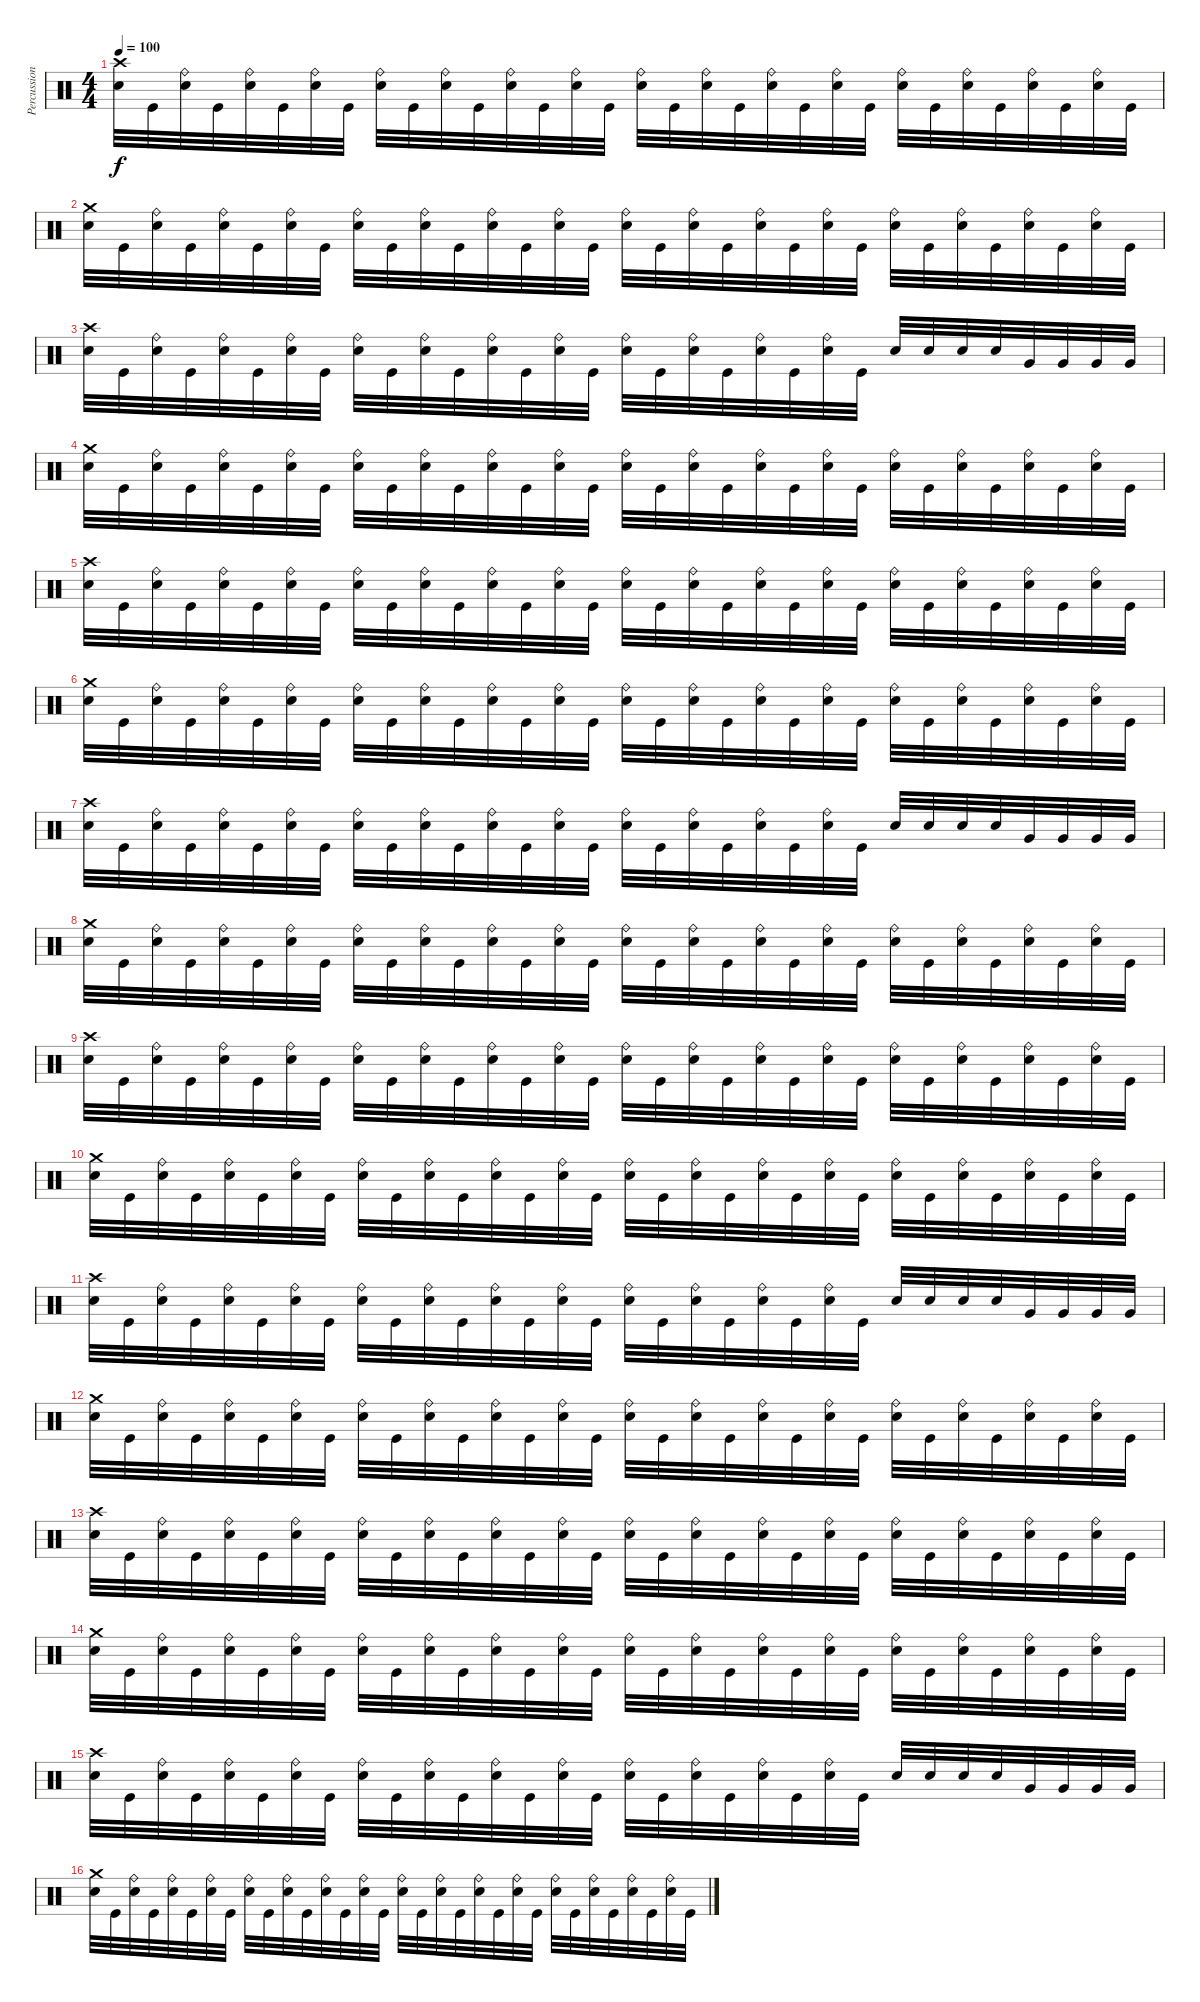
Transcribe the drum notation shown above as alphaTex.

\track ("Percussion" "Percussion") {instrument percussion}
\staff {score}
\articulation defaults
\ts (4 4)
\tempo 100
\clef neutral
\ks c
("Crash high (hit)" "Electric Snare (hit)").32{dy f} "Kick (hit)".32 ("Ride (bell)" "Electric Snare (hit)").32 "Kick (hit)".32 ("Ride (bell)" "Electric Snare (hit)").32 "Kick (hit)".32 ("Ride (bell)" "Electric Snare (hit)").32 "Kick (hit)".32 ("Ride (bell)" "Electric Snare (hit)").32 "Kick (hit)".32 ("Ride (bell)" "Electric Snare (hit)").32 "Kick (hit)".32 ("Ride (bell)" "Electric Snare (hit)").32 "Kick (hit)".32 ("Ride (bell)" "Electric Snare (hit)").32 "Kick (hit)".32 ("Ride (bell)" "Electric Snare (hit)").32 "Kick (hit)".32 ("Ride (bell)" "Electric Snare (hit)").32 "Kick (hit)".32 ("Ride (bell)" "Electric Snare (hit)").32 "Kick (hit)".32 ("Ride (bell)" "Electric Snare (hit)").32 "Kick (hit)".32 ("Ride (bell)" "Electric Snare (hit)").32 "Kick (hit)".32 ("Ride (bell)" "Electric Snare (hit)").32 "Kick (hit)".32 ("Ride (bell)" "Electric Snare (hit)").32 "Kick (hit)".32 ("Ride (bell)" "Electric Snare (hit)").32 "Kick (hit)".32 |
("Crash medium (hit)" "Electric Snare (hit)").32 "Kick (hit)".32 ("Ride (bell)" "Electric Snare (hit)").32 "Kick (hit)".32 ("Ride (bell)" "Electric Snare (hit)").32 "Kick (hit)".32 ("Ride (bell)" "Electric Snare (hit)").32 "Kick (hit)".32 ("Ride (bell)" "Electric Snare (hit)").32 "Kick (hit)".32 ("Ride (bell)" "Electric Snare (hit)").32 "Kick (hit)".32 ("Ride (bell)" "Electric Snare (hit)").32 "Kick (hit)".32 ("Ride (bell)" "Electric Snare (hit)").32 "Kick (hit)".32 ("Ride (bell)" "Electric Snare (hit)").32 "Kick (hit)".32 ("Ride (bell)" "Electric Snare (hit)").32 "Kick (hit)".32 ("Ride (bell)" "Electric Snare (hit)").32 "Kick (hit)".32 ("Ride (bell)" "Electric Snare (hit)").32 "Kick (hit)".32 ("Ride (bell)" "Electric Snare (hit)").32 "Kick (hit)".32 ("Ride (bell)" "Electric Snare (hit)").32 "Kick (hit)".32 ("Ride (bell)" "Electric Snare (hit)").32 "Kick (hit)".32 ("Ride (bell)" "Electric Snare (hit)").32 "Kick (hit)".32 |
("Crash high (hit)" "Electric Snare (hit)").32 "Kick (hit)".32 ("Ride (bell)" "Electric Snare (hit)").32 "Kick (hit)".32 ("Ride (bell)" "Electric Snare (hit)").32 "Kick (hit)".32 ("Ride (bell)" "Electric Snare (hit)").32 "Kick (hit)".32 ("Ride (bell)" "Electric Snare (hit)").32 "Kick (hit)".32 ("Ride (bell)" "Electric Snare (hit)").32 "Kick (hit)".32 ("Ride (bell)" "Electric Snare (hit)").32 "Kick (hit)".32 ("Ride (bell)" "Electric Snare (hit)").32 "Kick (hit)".32 ("Ride (bell)" "Electric Snare (hit)").32 "Kick (hit)".32 ("Ride (bell)" "Electric Snare (hit)").32 "Kick (hit)".32 ("Ride (bell)" "Electric Snare (hit)").32 "Kick (hit)".32 ("Ride (bell)" "Electric Snare (hit)").32 "Kick (hit)".32 "Electric Snare (hit)".32 "Electric Snare (hit)".32 "Electric Snare (hit)".32 "Electric Snare (hit)".32 "Very Low Tom (hit)".32 "Very Low Tom (hit)".32 "Very Low Tom (hit)".32 "Very Low Tom (hit)".32 |
("Crash medium (hit)" "Electric Snare (hit)").32 "Kick (hit)".32 ("Ride (bell)" "Electric Snare (hit)").32 "Kick (hit)".32 ("Ride (bell)" "Electric Snare (hit)").32 "Kick (hit)".32 ("Ride (bell)" "Electric Snare (hit)").32 "Kick (hit)".32 ("Ride (bell)" "Electric Snare (hit)").32 "Kick (hit)".32 ("Ride (bell)" "Electric Snare (hit)").32 "Kick (hit)".32 ("Ride (bell)" "Electric Snare (hit)").32 "Kick (hit)".32 ("Ride (bell)" "Electric Snare (hit)").32 "Kick (hit)".32 ("Ride (bell)" "Electric Snare (hit)").32 "Kick (hit)".32 ("Ride (bell)" "Electric Snare (hit)").32 "Kick (hit)".32 ("Ride (bell)" "Electric Snare (hit)").32 "Kick (hit)".32 ("Ride (bell)" "Electric Snare (hit)").32 "Kick (hit)".32 ("Ride (bell)" "Electric Snare (hit)").32 "Kick (hit)".32 ("Ride (bell)" "Electric Snare (hit)").32 "Kick (hit)".32 ("Ride (bell)" "Electric Snare (hit)").32 "Kick (hit)".32 ("Ride (bell)" "Electric Snare (hit)").32 "Kick (hit)".32 |
("Crash high (hit)" "Electric Snare (hit)").32 "Kick (hit)".32 ("Ride (bell)" "Electric Snare (hit)").32 "Kick (hit)".32 ("Ride (bell)" "Electric Snare (hit)").32 "Kick (hit)".32 ("Ride (bell)" "Electric Snare (hit)").32 "Kick (hit)".32 ("Ride (bell)" "Electric Snare (hit)").32 "Kick (hit)".32 ("Ride (bell)" "Electric Snare (hit)").32 "Kick (hit)".32 ("Ride (bell)" "Electric Snare (hit)").32 "Kick (hit)".32 ("Ride (bell)" "Electric Snare (hit)").32 "Kick (hit)".32 ("Ride (bell)" "Electric Snare (hit)").32 "Kick (hit)".32 ("Ride (bell)" "Electric Snare (hit)").32 "Kick (hit)".32 ("Ride (bell)" "Electric Snare (hit)").32 "Kick (hit)".32 ("Ride (bell)" "Electric Snare (hit)").32 "Kick (hit)".32 ("Ride (bell)" "Electric Snare (hit)").32 "Kick (hit)".32 ("Ride (bell)" "Electric Snare (hit)").32 "Kick (hit)".32 ("Ride (bell)" "Electric Snare (hit)").32 "Kick (hit)".32 ("Ride (bell)" "Electric Snare (hit)").32 "Kick (hit)".32 |
("Crash medium (hit)" "Electric Snare (hit)").32 "Kick (hit)".32 ("Ride (bell)" "Electric Snare (hit)").32 "Kick (hit)".32 ("Ride (bell)" "Electric Snare (hit)").32 "Kick (hit)".32 ("Ride (bell)" "Electric Snare (hit)").32 "Kick (hit)".32 ("Ride (bell)" "Electric Snare (hit)").32 "Kick (hit)".32 ("Ride (bell)" "Electric Snare (hit)").32 "Kick (hit)".32 ("Ride (bell)" "Electric Snare (hit)").32 "Kick (hit)".32 ("Ride (bell)" "Electric Snare (hit)").32 "Kick (hit)".32 ("Ride (bell)" "Electric Snare (hit)").32 "Kick (hit)".32 ("Ride (bell)" "Electric Snare (hit)").32 "Kick (hit)".32 ("Ride (bell)" "Electric Snare (hit)").32 "Kick (hit)".32 ("Ride (bell)" "Electric Snare (hit)").32 "Kick (hit)".32 ("Ride (bell)" "Electric Snare (hit)").32 "Kick (hit)".32 ("Ride (bell)" "Electric Snare (hit)").32 "Kick (hit)".32 ("Ride (bell)" "Electric Snare (hit)").32 "Kick (hit)".32 ("Ride (bell)" "Electric Snare (hit)").32 "Kick (hit)".32 |
("Crash high (hit)" "Electric Snare (hit)").32 "Kick (hit)".32 ("Ride (bell)" "Electric Snare (hit)").32 "Kick (hit)".32 ("Ride (bell)" "Electric Snare (hit)").32 "Kick (hit)".32 ("Ride (bell)" "Electric Snare (hit)").32 "Kick (hit)".32 ("Ride (bell)" "Electric Snare (hit)").32 "Kick (hit)".32 ("Ride (bell)" "Electric Snare (hit)").32 "Kick (hit)".32 ("Ride (bell)" "Electric Snare (hit)").32 "Kick (hit)".32 ("Ride (bell)" "Electric Snare (hit)").32 "Kick (hit)".32 ("Ride (bell)" "Electric Snare (hit)").32 "Kick (hit)".32 ("Ride (bell)" "Electric Snare (hit)").32 "Kick (hit)".32 ("Ride (bell)" "Electric Snare (hit)").32 "Kick (hit)".32 ("Ride (bell)" "Electric Snare (hit)").32 "Kick (hit)".32 "Electric Snare (hit)".32 "Electric Snare (hit)".32 "Electric Snare (hit)".32 "Electric Snare (hit)".32 "Very Low Tom (hit)".32 "Very Low Tom (hit)".32 "Very Low Tom (hit)".32 "Very Low Tom (hit)".32 |
("Crash medium (hit)" "Electric Snare (hit)").32 "Kick (hit)".32 ("Ride (bell)" "Electric Snare (hit)").32 "Kick (hit)".32 ("Ride (bell)" "Electric Snare (hit)").32 "Kick (hit)".32 ("Ride (bell)" "Electric Snare (hit)").32 "Kick (hit)".32 ("Ride (bell)" "Electric Snare (hit)").32 "Kick (hit)".32 ("Ride (bell)" "Electric Snare (hit)").32 "Kick (hit)".32 ("Ride (bell)" "Electric Snare (hit)").32 "Kick (hit)".32 ("Ride (bell)" "Electric Snare (hit)").32 "Kick (hit)".32 ("Ride (bell)" "Electric Snare (hit)").32 "Kick (hit)".32 ("Ride (bell)" "Electric Snare (hit)").32 "Kick (hit)".32 ("Ride (bell)" "Electric Snare (hit)").32 "Kick (hit)".32 ("Ride (bell)" "Electric Snare (hit)").32 "Kick (hit)".32 ("Ride (bell)" "Electric Snare (hit)").32 "Kick (hit)".32 ("Ride (bell)" "Electric Snare (hit)").32 "Kick (hit)".32 ("Ride (bell)" "Electric Snare (hit)").32 "Kick (hit)".32 ("Ride (bell)" "Electric Snare (hit)").32 "Kick (hit)".32 |
("Crash high (hit)" "Electric Snare (hit)").32 "Kick (hit)".32 ("Ride (bell)" "Electric Snare (hit)").32 "Kick (hit)".32 ("Ride (bell)" "Electric Snare (hit)").32 "Kick (hit)".32 ("Ride (bell)" "Electric Snare (hit)").32 "Kick (hit)".32 ("Ride (bell)" "Electric Snare (hit)").32 "Kick (hit)".32 ("Ride (bell)" "Electric Snare (hit)").32 "Kick (hit)".32 ("Ride (bell)" "Electric Snare (hit)").32 "Kick (hit)".32 ("Ride (bell)" "Electric Snare (hit)").32 "Kick (hit)".32 ("Ride (bell)" "Electric Snare (hit)").32 "Kick (hit)".32 ("Ride (bell)" "Electric Snare (hit)").32 "Kick (hit)".32 ("Ride (bell)" "Electric Snare (hit)").32 "Kick (hit)".32 ("Ride (bell)" "Electric Snare (hit)").32 "Kick (hit)".32 ("Ride (bell)" "Electric Snare (hit)").32 "Kick (hit)".32 ("Ride (bell)" "Electric Snare (hit)").32 "Kick (hit)".32 ("Ride (bell)" "Electric Snare (hit)").32 "Kick (hit)".32 ("Ride (bell)" "Electric Snare (hit)").32 "Kick (hit)".32 |
("Crash medium (hit)" "Electric Snare (hit)").32 "Kick (hit)".32 ("Ride (bell)" "Electric Snare (hit)").32 "Kick (hit)".32 ("Ride (bell)" "Electric Snare (hit)").32 "Kick (hit)".32 ("Ride (bell)" "Electric Snare (hit)").32 "Kick (hit)".32 ("Ride (bell)" "Electric Snare (hit)").32 "Kick (hit)".32 ("Ride (bell)" "Electric Snare (hit)").32 "Kick (hit)".32 ("Ride (bell)" "Electric Snare (hit)").32 "Kick (hit)".32 ("Ride (bell)" "Electric Snare (hit)").32 "Kick (hit)".32 ("Ride (bell)" "Electric Snare (hit)").32 "Kick (hit)".32 ("Ride (bell)" "Electric Snare (hit)").32 "Kick (hit)".32 ("Ride (bell)" "Electric Snare (hit)").32 "Kick (hit)".32 ("Ride (bell)" "Electric Snare (hit)").32 "Kick (hit)".32 ("Ride (bell)" "Electric Snare (hit)").32 "Kick (hit)".32 ("Ride (bell)" "Electric Snare (hit)").32 "Kick (hit)".32 ("Ride (bell)" "Electric Snare (hit)").32 "Kick (hit)".32 ("Ride (bell)" "Electric Snare (hit)").32 "Kick (hit)".32 |
("Crash high (hit)" "Electric Snare (hit)").32 "Kick (hit)".32 ("Ride (bell)" "Electric Snare (hit)").32 "Kick (hit)".32 ("Ride (bell)" "Electric Snare (hit)").32 "Kick (hit)".32 ("Ride (bell)" "Electric Snare (hit)").32 "Kick (hit)".32 ("Ride (bell)" "Electric Snare (hit)").32 "Kick (hit)".32 ("Ride (bell)" "Electric Snare (hit)").32 "Kick (hit)".32 ("Ride (bell)" "Electric Snare (hit)").32 "Kick (hit)".32 ("Ride (bell)" "Electric Snare (hit)").32 "Kick (hit)".32 ("Ride (bell)" "Electric Snare (hit)").32 "Kick (hit)".32 ("Ride (bell)" "Electric Snare (hit)").32 "Kick (hit)".32 ("Ride (bell)" "Electric Snare (hit)").32 "Kick (hit)".32 ("Ride (bell)" "Electric Snare (hit)").32 "Kick (hit)".32 "Electric Snare (hit)".32 "Electric Snare (hit)".32 "Electric Snare (hit)".32 "Electric Snare (hit)".32 "Very Low Tom (hit)".32 "Very Low Tom (hit)".32 "Very Low Tom (hit)".32 "Very Low Tom (hit)".32 |
("Crash medium (hit)" "Electric Snare (hit)").32 "Kick (hit)".32 ("Ride (bell)" "Electric Snare (hit)").32 "Kick (hit)".32 ("Ride (bell)" "Electric Snare (hit)").32 "Kick (hit)".32 ("Ride (bell)" "Electric Snare (hit)").32 "Kick (hit)".32 ("Ride (bell)" "Electric Snare (hit)").32 "Kick (hit)".32 ("Ride (bell)" "Electric Snare (hit)").32 "Kick (hit)".32 ("Ride (bell)" "Electric Snare (hit)").32 "Kick (hit)".32 ("Ride (bell)" "Electric Snare (hit)").32 "Kick (hit)".32 ("Ride (bell)" "Electric Snare (hit)").32 "Kick (hit)".32 ("Ride (bell)" "Electric Snare (hit)").32 "Kick (hit)".32 ("Ride (bell)" "Electric Snare (hit)").32 "Kick (hit)".32 ("Ride (bell)" "Electric Snare (hit)").32 "Kick (hit)".32 ("Ride (bell)" "Electric Snare (hit)").32 "Kick (hit)".32 ("Ride (bell)" "Electric Snare (hit)").32 "Kick (hit)".32 ("Ride (bell)" "Electric Snare (hit)").32 "Kick (hit)".32 ("Ride (bell)" "Electric Snare (hit)").32 "Kick (hit)".32 |
("Crash high (hit)" "Electric Snare (hit)").32 "Kick (hit)".32 ("Ride (bell)" "Electric Snare (hit)").32 "Kick (hit)".32 ("Ride (bell)" "Electric Snare (hit)").32 "Kick (hit)".32 ("Ride (bell)" "Electric Snare (hit)").32 "Kick (hit)".32 ("Ride (bell)" "Electric Snare (hit)").32 "Kick (hit)".32 ("Ride (bell)" "Electric Snare (hit)").32 "Kick (hit)".32 ("Ride (bell)" "Electric Snare (hit)").32 "Kick (hit)".32 ("Ride (bell)" "Electric Snare (hit)").32 "Kick (hit)".32 ("Ride (bell)" "Electric Snare (hit)").32 "Kick (hit)".32 ("Ride (bell)" "Electric Snare (hit)").32 "Kick (hit)".32 ("Ride (bell)" "Electric Snare (hit)").32 "Kick (hit)".32 ("Ride (bell)" "Electric Snare (hit)").32 "Kick (hit)".32 ("Ride (bell)" "Electric Snare (hit)").32 "Kick (hit)".32 ("Ride (bell)" "Electric Snare (hit)").32 "Kick (hit)".32 ("Ride (bell)" "Electric Snare (hit)").32 "Kick (hit)".32 ("Ride (bell)" "Electric Snare (hit)").32 "Kick (hit)".32 |
("Crash medium (hit)" "Electric Snare (hit)").32 "Kick (hit)".32 ("Ride (bell)" "Electric Snare (hit)").32 "Kick (hit)".32 ("Ride (bell)" "Electric Snare (hit)").32 "Kick (hit)".32 ("Ride (bell)" "Electric Snare (hit)").32 "Kick (hit)".32 ("Ride (bell)" "Electric Snare (hit)").32 "Kick (hit)".32 ("Ride (bell)" "Electric Snare (hit)").32 "Kick (hit)".32 ("Ride (bell)" "Electric Snare (hit)").32 "Kick (hit)".32 ("Ride (bell)" "Electric Snare (hit)").32 "Kick (hit)".32 ("Ride (bell)" "Electric Snare (hit)").32 "Kick (hit)".32 ("Ride (bell)" "Electric Snare (hit)").32 "Kick (hit)".32 ("Ride (bell)" "Electric Snare (hit)").32 "Kick (hit)".32 ("Ride (bell)" "Electric Snare (hit)").32 "Kick (hit)".32 ("Ride (bell)" "Electric Snare (hit)").32 "Kick (hit)".32 ("Ride (bell)" "Electric Snare (hit)").32 "Kick (hit)".32 ("Ride (bell)" "Electric Snare (hit)").32 "Kick (hit)".32 ("Ride (bell)" "Electric Snare (hit)").32 "Kick (hit)".32 |
("Crash high (hit)" "Electric Snare (hit)").32 "Kick (hit)".32 ("Ride (bell)" "Electric Snare (hit)").32 "Kick (hit)".32 ("Ride (bell)" "Electric Snare (hit)").32 "Kick (hit)".32 ("Ride (bell)" "Electric Snare (hit)").32 "Kick (hit)".32 ("Ride (bell)" "Electric Snare (hit)").32 "Kick (hit)".32 ("Ride (bell)" "Electric Snare (hit)").32 "Kick (hit)".32 ("Ride (bell)" "Electric Snare (hit)").32 "Kick (hit)".32 ("Ride (bell)" "Electric Snare (hit)").32 "Kick (hit)".32 ("Ride (bell)" "Electric Snare (hit)").32 "Kick (hit)".32 ("Ride (bell)" "Electric Snare (hit)").32 "Kick (hit)".32 ("Ride (bell)" "Electric Snare (hit)").32 "Kick (hit)".32 ("Ride (bell)" "Electric Snare (hit)").32 "Kick (hit)".32 "Electric Snare (hit)".32 "Electric Snare (hit)".32 "Electric Snare (hit)".32 "Electric Snare (hit)".32 "Very Low Tom (hit)".32 "Very Low Tom (hit)".32 "Very Low Tom (hit)".32 "Very Low Tom (hit)".32 |
("Crash medium (hit)" "Electric Snare (hit)").32 "Kick (hit)".32 ("Ride (bell)" "Electric Snare (hit)").32 "Kick (hit)".32 ("Ride (bell)" "Electric Snare (hit)").32 "Kick (hit)".32 ("Ride (bell)" "Electric Snare (hit)").32 "Kick (hit)".32 ("Ride (bell)" "Electric Snare (hit)").32 "Kick (hit)".32 ("Ride (bell)" "Electric Snare (hit)").32 "Kick (hit)".32 ("Ride (bell)" "Electric Snare (hit)").32 "Kick (hit)".32 ("Ride (bell)" "Electric Snare (hit)").32 "Kick (hit)".32 ("Ride (bell)" "Electric Snare (hit)").32 "Kick (hit)".32 ("Ride (bell)" "Electric Snare (hit)").32 "Kick (hit)".32 ("Ride (bell)" "Electric Snare (hit)").32 "Kick (hit)".32 ("Ride (bell)" "Electric Snare (hit)").32 "Kick (hit)".32 ("Ride (bell)" "Electric Snare (hit)").32 "Kick (hit)".32 ("Ride (bell)" "Electric Snare (hit)").32 "Kick (hit)".32 ("Ride (bell)" "Electric Snare (hit)").32 "Kick (hit)".32 ("Ride (bell)" "Electric Snare (hit)").32 "Kick (hit)".32
